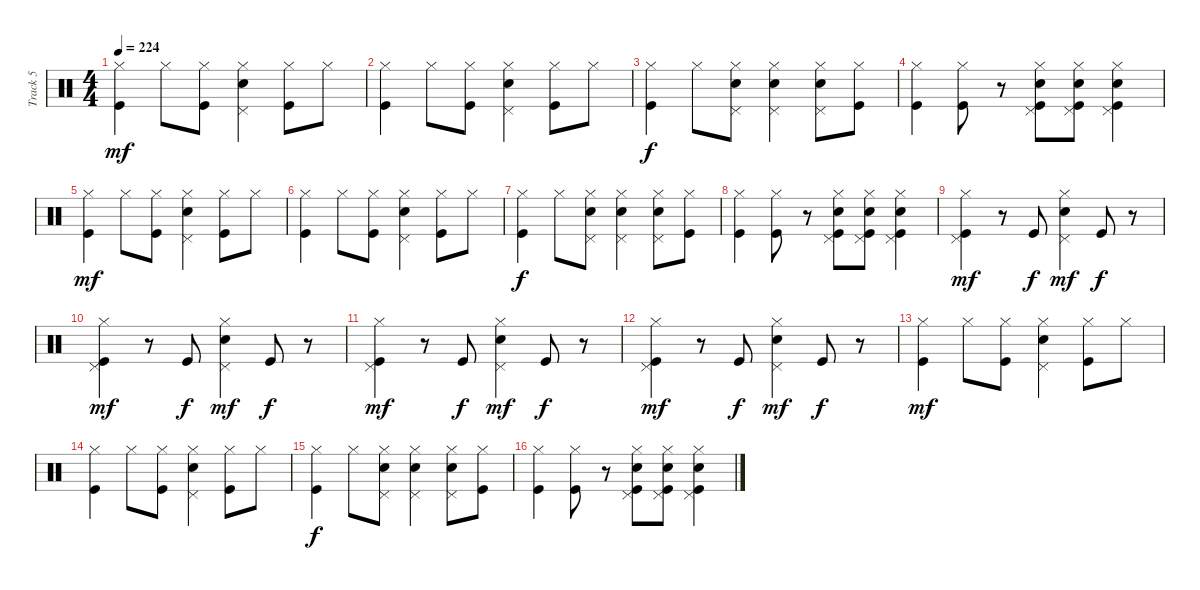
\track ("Track 5" "Track 5") {instrument percussion}
\staff {score}
\articulation defaults
\ts (4 4)
\tempo 224
\clef neutral
\ks c
("Hi-Hat (closed)" "Kick (hit)").4{dy mf} "Hi-Hat (closed)".8 ("Hi-Hat (closed)" "Kick (hit)").8 ("Hi-Hat (closed)" "Pedal Hi-Hat (hit)" "Electric Snare (hit)").4 ("Hi-Hat (closed)" "Kick (hit)").8 "Hi-Hat (closed)".8 |
("Hi-Hat (closed)" "Kick (hit)").4 "Hi-Hat (closed)".8 ("Hi-Hat (closed)" "Kick (hit)").8 ("Hi-Hat (closed)" "Pedal Hi-Hat (hit)" "Electric Snare (hit)").4 ("Hi-Hat (closed)" "Kick (hit)").8 "Hi-Hat (closed)".8 |
("Hi-Hat (closed)" "Kick (hit)").4{dy f} "Hi-Hat (closed)".8 ("Hi-Hat (closed)" "Pedal Hi-Hat (hit)" "Electric Snare (hit)").8 ("Hi-Hat (closed)" "Pedal Hi-Hat (hit)" "Electric Snare (hit)").4 ("Hi-Hat (closed)" "Pedal Hi-Hat (hit)" "Electric Snare (hit)").8 ("Hi-Hat (closed)" "Kick (hit)").8 |
("Hi-Hat (closed)" "Kick (hit)").4 ("Hi-Hat (closed)" "Kick (hit)").8 r.8 ("Hi-Hat (closed)" "Pedal Hi-Hat (hit)" "Electric Snare (hit)" "Kick (hit)").8 ("Hi-Hat (closed)" "Pedal Hi-Hat (hit)" "Electric Snare (hit)" "Kick (hit)").8 ("Hi-Hat (closed)" "Pedal Hi-Hat (hit)" "Electric Snare (hit)" "Kick (hit)").4 |
("Hi-Hat (closed)" "Kick (hit)").4{dy mf} "Hi-Hat (closed)".8 ("Hi-Hat (closed)" "Kick (hit)").8 ("Hi-Hat (closed)" "Pedal Hi-Hat (hit)" "Electric Snare (hit)").4 ("Hi-Hat (closed)" "Kick (hit)").8 "Hi-Hat (closed)".8 |
("Hi-Hat (closed)" "Kick (hit)").4 "Hi-Hat (closed)".8 ("Hi-Hat (closed)" "Kick (hit)").8 ("Hi-Hat (closed)" "Pedal Hi-Hat (hit)" "Electric Snare (hit)").4 ("Hi-Hat (closed)" "Kick (hit)").8 "Hi-Hat (closed)".8 |
("Hi-Hat (closed)" "Kick (hit)").4{dy f} "Hi-Hat (closed)".8 ("Hi-Hat (closed)" "Pedal Hi-Hat (hit)" "Electric Snare (hit)").8 ("Hi-Hat (closed)" "Pedal Hi-Hat (hit)" "Electric Snare (hit)").4 ("Hi-Hat (closed)" "Pedal Hi-Hat (hit)" "Electric Snare (hit)").8 ("Hi-Hat (closed)" "Kick (hit)").8 |
("Hi-Hat (closed)" "Kick (hit)").4 ("Hi-Hat (closed)" "Kick (hit)").8 r.8 ("Hi-Hat (closed)" "Pedal Hi-Hat (hit)" "Electric Snare (hit)" "Kick (hit)").8 ("Hi-Hat (closed)" "Pedal Hi-Hat (hit)" "Electric Snare (hit)" "Kick (hit)").8 ("Hi-Hat (closed)" "Pedal Hi-Hat (hit)" "Electric Snare (hit)" "Kick (hit)").4 |
("Hi-Hat (closed)" "Pedal Hi-Hat (hit)" "Kick (hit)").4{dy mf} r.8 "Kick (hit)".8{dy f} ("Hi-Hat (closed)" "Pedal Hi-Hat (hit)" "Electric Snare (hit)").4{dy mf} "Kick (hit)".8{dy f} r.8 |
("Hi-Hat (closed)" "Pedal Hi-Hat (hit)" "Kick (hit)").4{dy mf} r.8 "Kick (hit)".8{dy f} ("Hi-Hat (closed)" "Pedal Hi-Hat (hit)" "Electric Snare (hit)").4{dy mf} "Kick (hit)".8{dy f} r.8 |
("Hi-Hat (closed)" "Pedal Hi-Hat (hit)" "Kick (hit)").4{dy mf} r.8 "Kick (hit)".8{dy f} ("Hi-Hat (closed)" "Pedal Hi-Hat (hit)" "Electric Snare (hit)").4{dy mf} "Kick (hit)".8{dy f} r.8 |
("Hi-Hat (closed)" "Pedal Hi-Hat (hit)" "Kick (hit)").4{dy mf} r.8 "Kick (hit)".8{dy f} ("Hi-Hat (closed)" "Pedal Hi-Hat (hit)" "Electric Snare (hit)").4{dy mf} "Kick (hit)".8{dy f} r.8 |
("Hi-Hat (closed)" "Kick (hit)").4{dy mf} "Hi-Hat (closed)".8 ("Hi-Hat (closed)" "Kick (hit)").8 ("Hi-Hat (closed)" "Pedal Hi-Hat (hit)" "Electric Snare (hit)").4 ("Hi-Hat (closed)" "Kick (hit)").8 "Hi-Hat (closed)".8 |
("Hi-Hat (closed)" "Kick (hit)").4 "Hi-Hat (closed)".8 ("Hi-Hat (closed)" "Kick (hit)").8 ("Hi-Hat (closed)" "Pedal Hi-Hat (hit)" "Electric Snare (hit)").4 ("Hi-Hat (closed)" "Kick (hit)").8 "Hi-Hat (closed)".8 |
("Hi-Hat (closed)" "Kick (hit)").4{dy f} "Hi-Hat (closed)".8 ("Hi-Hat (closed)" "Pedal Hi-Hat (hit)" "Electric Snare (hit)").8 ("Hi-Hat (closed)" "Pedal Hi-Hat (hit)" "Electric Snare (hit)").4 ("Hi-Hat (closed)" "Pedal Hi-Hat (hit)" "Electric Snare (hit)").8 ("Hi-Hat (closed)" "Kick (hit)").8 |
("Hi-Hat (closed)" "Kick (hit)").4 ("Hi-Hat (closed)" "Kick (hit)").8 r.8 ("Hi-Hat (closed)" "Pedal Hi-Hat (hit)" "Electric Snare (hit)" "Kick (hit)").8 ("Hi-Hat (closed)" "Pedal Hi-Hat (hit)" "Electric Snare (hit)" "Kick (hit)").8 ("Hi-Hat (closed)" "Pedal Hi-Hat (hit)" "Electric Snare (hit)" "Kick (hit)").4
